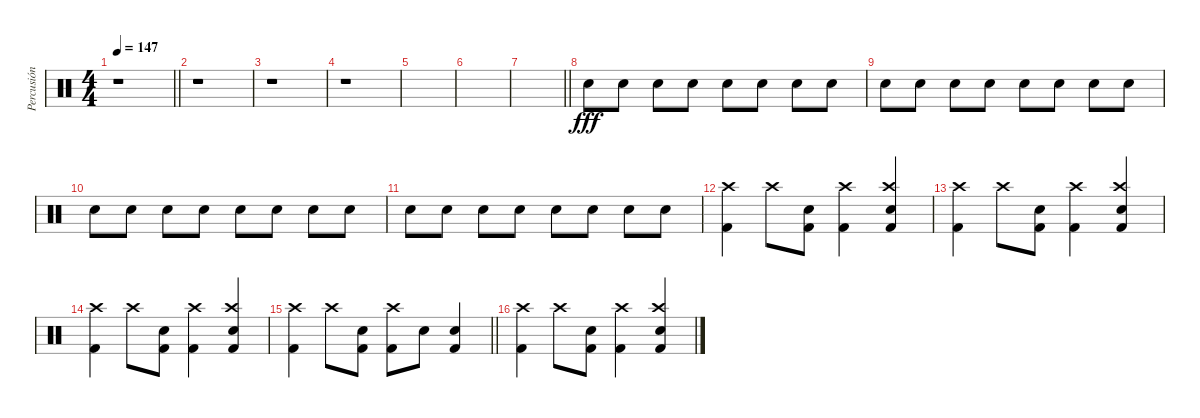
\track ("Percusión" "Percusión") {instrument percussion}
\staff {score}
\articulation defaults
\ts (4 4)
\tempo 147
\clef neutral
\barLineRight lightlight
\ks c
r.1{dy f volume 0 balance 8} |
r.1 |
r.1 |
r.1 |
|
|
\barLineRight lightlight
|
"Electric Snare (hit)".8{dy fff volume 12} "Electric Snare (hit)".8 "Electric Snare (hit)".8 "Electric Snare (hit)".8 "Electric Snare (hit)".8 "Electric Snare (hit)".8 "Electric Snare (hit)".8 "Electric Snare (hit)".8 |
"Electric Snare (hit)".8 "Electric Snare (hit)".8 "Electric Snare (hit)".8 "Electric Snare (hit)".8 "Electric Snare (hit)".8 "Electric Snare (hit)".8 "Electric Snare (hit)".8 "Electric Snare (hit)".8 |
"Electric Snare (hit)".8 "Electric Snare (hit)".8 "Electric Snare (hit)".8 "Electric Snare (hit)".8 "Electric Snare (hit)".8 "Electric Snare (hit)".8 "Electric Snare (hit)".8 "Electric Snare (hit)".8 |
"Electric Snare (hit)".8 "Electric Snare (hit)".8 "Electric Snare (hit)".8 "Electric Snare (hit)".8 "Electric Snare (hit)".8 "Electric Snare (hit)".8 "Electric Snare (hit)".8 "Electric Snare (hit)".8 |
("Crash high (hit)" "Kick (hit) 2").4 "Crash high (hit)".8 ("Electric Snare (hit)" "Kick (hit) 2").8 ("Crash high (hit)" "Kick (hit) 2").4 ("Crash high (hit)" "Electric Snare (hit)" "Kick (hit) 2").4 |
("Crash high (hit)" "Kick (hit) 2").4 "Crash high (hit)".8 ("Electric Snare (hit)" "Kick (hit) 2").8 ("Crash high (hit)" "Kick (hit) 2").4 ("Crash high (hit)" "Electric Snare (hit)" "Kick (hit) 2").4 |
("Crash high (hit)" "Kick (hit) 2").4 "Crash high (hit)".8 ("Electric Snare (hit)" "Kick (hit) 2").8 ("Crash high (hit)" "Kick (hit) 2").4 ("Crash high (hit)" "Electric Snare (hit)" "Kick (hit) 2").4 |
\barLineRight lightlight
("Crash high (hit)" "Kick (hit) 2").4 "Crash high (hit)".8 ("Electric Snare (hit)" "Kick (hit) 2").8 ("Crash high (hit)" "Kick (hit) 2").8 "Electric Snare (hit)".8 ("Electric Snare (hit)" "Kick (hit) 2").4 |
("Crash high (hit)" "Kick (hit) 2").4 "Crash high (hit)".8 ("Electric Snare (hit)" "Kick (hit) 2").8 ("Crash high (hit)" "Kick (hit) 2").4 ("Crash high (hit)" "Electric Snare (hit)" "Kick (hit) 2").4
